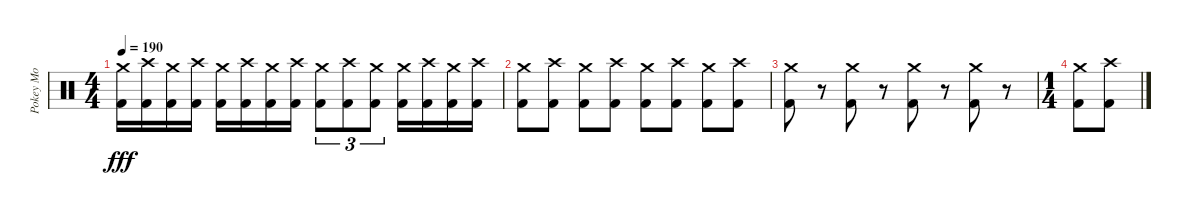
\track ("Pokey Mo" "Pokey Mo") {instrument percussion}
\staff {score}
\articulation defaults
\ts (4 4)
\tempo 190
\clef neutral
\ks c
("Crash medium (hit)" "Kick (hit) 2").16{dy fff} ("Crash high (hit)" "Kick (hit) 2").16 ("Crash medium (hit)" "Kick (hit) 2").16 ("Crash high (hit)" "Kick (hit) 2").16 ("Crash medium (hit)" "Kick (hit) 2").16 ("Crash high (hit)" "Kick (hit) 2").16 ("Crash medium (hit)" "Kick (hit) 2").16 ("Crash high (hit)" "Kick (hit) 2").16 ("Crash medium (hit)" "Kick (hit) 2").8{tu (3 2)} ("Crash high (hit)" "Kick (hit) 2").8{tu (3 2)} ("Crash medium (hit)" "Kick (hit) 2").8{tu (3 2)} ("Crash medium (hit)" "Kick (hit) 2").16 ("Crash high (hit)" "Kick (hit) 2").16 ("Crash medium (hit)" "Kick (hit) 2").16 ("Crash high (hit)" "Kick (hit) 2").16 |
("Crash medium (hit)" "Kick (hit) 2").8 ("Crash high (hit)" "Kick (hit) 2").8 ("Crash medium (hit)" "Kick (hit) 2").8 ("Crash high (hit)" "Kick (hit) 2").8 ("Crash medium (hit)" "Kick (hit) 2").8 ("Crash high (hit)" "Kick (hit) 2").8 ("Crash medium (hit)" "Kick (hit) 2").8 ("Crash high (hit)" "Kick (hit) 2").8 |
("Crash medium (hit)" "Kick (hit) 2").8 r.8 ("Crash medium (hit)" "Kick (hit) 2").8 r.8 ("Crash medium (hit)" "Kick (hit) 2").8 r.8 ("Crash medium (hit)" "Kick (hit) 2").8 r.8 |
\ts (1 4)
("Crash medium (hit)" "Kick (hit) 2").8 ("Crash high (hit)" "Kick (hit) 2").8
